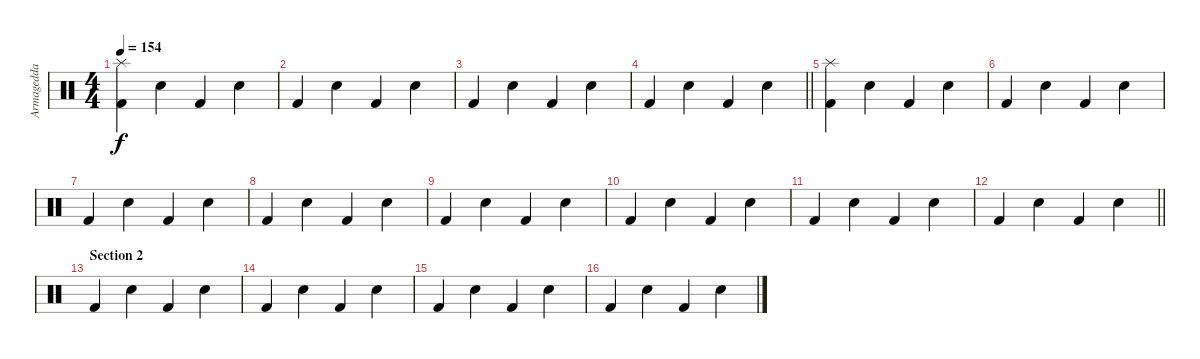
\track ("Armagedda" "Armagedda") {instrument percussion}
\staff {score}
\articulation defaults
\ts (4 4)
\tempo 154
\clef neutral
\ks c
("Splash (hit)" "Kick (hit) 2").4{dy f} "Snare (hit) 2".4 "Kick (hit) 2".4 "Snare (hit) 2".4 |
"Kick (hit) 2".4 "Snare (hit) 2".4 "Kick (hit) 2".4 "Snare (hit) 2".4 |
"Kick (hit) 2".4 "Snare (hit) 2".4 "Kick (hit) 2".4 "Snare (hit) 2".4 |
\barLineRight lightlight "Kick (hit) 2".4 "Snare (hit) 2".4 "Kick (hit) 2".4 "Snare (hit) 2".4
|
("Splash (hit)" "Kick (hit) 2").4 "Snare (hit) 2".4 "Kick (hit) 2".4 "Snare (hit) 2".4 |
"Kick (hit) 2".4 "Snare (hit) 2".4 "Kick (hit) 2".4 "Snare (hit) 2".4 |
"Kick (hit) 2".4 "Snare (hit) 2".4 "Kick (hit) 2".4 "Snare (hit) 2".4 |
"Kick (hit) 2".4 "Snare (hit) 2".4 "Kick (hit) 2".4 "Snare (hit) 2".4 |
"Kick (hit) 2".4 "Snare (hit) 2".4 "Kick (hit) 2".4 "Snare (hit) 2".4 |
"Kick (hit) 2".4 "Snare (hit) 2".4 "Kick (hit) 2".4 "Snare (hit) 2".4 |
"Kick (hit) 2".4 "Snare (hit) 2".4 "Kick (hit) 2".4 "Snare (hit) 2".4 |
\barLineRight lightlight "Kick (hit) 2".4 "Snare (hit) 2".4 "Kick (hit) 2".4 "Snare (hit) 2".4
|
\section ("" "Section 2")
"Kick (hit) 2".4 "Snare (hit) 2".4 "Kick (hit) 2".4 "Snare (hit) 2".4 |
"Kick (hit) 2".4 "Snare (hit) 2".4 "Kick (hit) 2".4 "Snare (hit) 2".4 |
"Kick (hit) 2".4 "Snare (hit) 2".4 "Kick (hit) 2".4 "Snare (hit) 2".4 |
"Kick (hit) 2".4 "Snare (hit) 2".4 "Kick (hit) 2".4 "Snare (hit) 2".4
